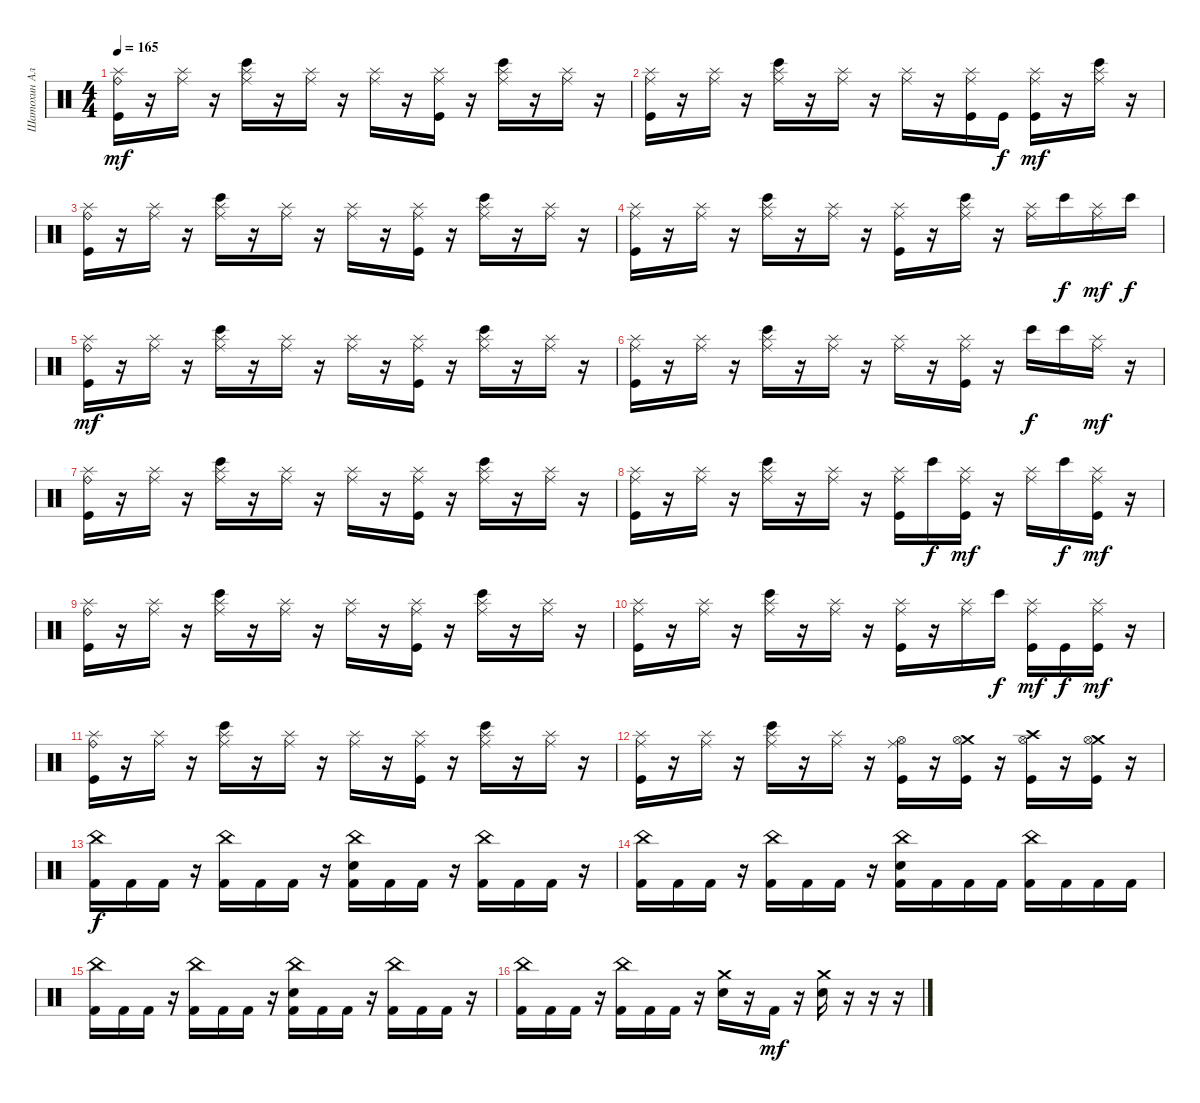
\track ("Шатохин Алексей" "Шатохин Ал") {instrument percussion}
\staff {score}
\articulation defaults
\ts (4 4)
\tempo 165
\clef neutral
\ks c
("Kick (hit)" "Ride (bell)" "Splash (hit)").16{dy mf} r.16 ("Ride (middle)" "Splash (hit)").16 r.16 ("Bongo High (hit)" "Ride (middle)" "Splash (hit)").16 r.16 ("Ride (middle)" "Splash (hit)").16 r.16 ("Ride (middle)" "Splash (hit)").16 r.16 ("Kick (hit)" "Ride (middle)" "Splash (hit)").16 r.16 ("Bongo High (hit)" "Ride (middle)" "Splash (hit)").16 r.16 ("Ride (middle)" "Splash (hit)").16 r.16 |
("Kick (hit)" "Ride (middle)" "Splash (hit)").16 r.16 ("Ride (middle)" "Splash (hit)").16 r.16 ("Bongo High (hit)" "Ride (middle)" "Splash (hit)").16 r.16 ("Ride (middle)" "Splash (hit)").16 r.16 ("Ride (middle)" "Splash (hit)").16 r.16 ("Kick (hit)" "Ride (middle)" "Splash (hit)").16 "Kick (hit)".16{dy f} ("Kick (hit)" "Ride (middle)" "Splash (hit)").16{dy mf} r.16 ("Bongo High (hit)" "Ride (middle)" "Splash (hit)").16 r.16 |
("Kick (hit)" "Ride (bell)" "Splash (hit)").16 r.16 ("Ride (middle)" "Splash (hit)").16 r.16 ("Bongo High (hit)" "Ride (middle)" "Splash (hit)").16 r.16 ("Ride (middle)" "Splash (hit)").16 r.16 ("Ride (middle)" "Splash (hit)").16 r.16 ("Kick (hit)" "Ride (middle)" "Splash (hit)").16 r.16 ("Bongo High (hit)" "Ride (middle)" "Splash (hit)").16 r.16 ("Ride (middle)" "Splash (hit)").16 r.16 |
("Kick (hit)" "Ride (middle)" "Splash (hit)").16 r.16 ("Ride (middle)" "Splash (hit)").16 r.16 ("Bongo High (hit)" "Ride (middle)" "Splash (hit)").16 r.16 ("Ride (middle)" "Splash (hit)").16 r.16 ("Kick (hit)" "Ride (middle)" "Splash (hit)").16 r.16 ("Bongo High (hit)" "Ride (middle)" "Splash (hit)").16 r.16 ("Ride (middle)" "Splash (hit)").16 "Bongo High (hit)".16{dy f} ("Ride (middle)" "Splash (hit)").16{dy mf} "Bongo High (hit)".16{dy f} |
("Kick (hit)" "Ride (bell)" "Splash (hit)").16{dy mf} r.16 ("Ride (middle)" "Splash (hit)").16 r.16 ("Bongo High (hit)" "Ride (middle)" "Splash (hit)").16 r.16 ("Ride (middle)" "Splash (hit)").16 r.16 ("Ride (middle)" "Splash (hit)").16 r.16 ("Kick (hit)" "Ride (middle)" "Splash (hit)").16 r.16 ("Bongo High (hit)" "Ride (middle)" "Splash (hit)").16 r.16 ("Ride (middle)" "Splash (hit)").16 r.16 |
("Kick (hit)" "Ride (middle)" "Splash (hit)").16 r.16 ("Ride (middle)" "Splash (hit)").16 r.16 ("Bongo High (hit)" "Ride (middle)" "Splash (hit)").16 r.16 ("Ride (middle)" "Splash (hit)").16 r.16 ("Ride (middle)" "Splash (hit)").16 r.16 ("Kick (hit)" "Ride (middle)" "Splash (hit)").16 r.16 "Bongo High (hit)".16{dy f} "Bongo High (hit)".16 ("Ride (middle)" "Splash (hit)").16{dy mf} r.16 |
("Kick (hit)" "Ride (bell)" "Splash (hit)").16 r.16 ("Ride (middle)" "Splash (hit)").16 r.16 ("Bongo High (hit)" "Ride (middle)" "Splash (hit)").16 r.16 ("Ride (middle)" "Splash (hit)").16 r.16 ("Ride (middle)" "Splash (hit)").16 r.16 ("Kick (hit)" "Ride (middle)" "Splash (hit)").16 r.16 ("Bongo High (hit)" "Ride (middle)" "Splash (hit)").16 r.16 ("Ride (middle)" "Splash (hit)").16 r.16 |
("Kick (hit)" "Ride (middle)" "Splash (hit)").16 r.16 ("Ride (middle)" "Splash (hit)").16 r.16 ("Bongo High (hit)" "Ride (middle)" "Splash (hit)").16 r.16 ("Ride (middle)" "Splash (hit)").16 r.16 ("Kick (hit)" "Ride (middle)" "Splash (hit)").16 "Bongo High (hit)".16{dy f} ("Kick (hit)" "Ride (middle)" "Splash (hit)").16{dy mf} r.16 ("Ride (middle)" "Splash (hit)").16 "Bongo High (hit)".16{dy f} ("Kick (hit)" "Ride (middle)" "Splash (hit)").16{dy mf} r.16 |
("Kick (hit)" "Ride (bell)" "Splash (hit)").16 r.16 ("Ride (middle)" "Splash (hit)").16 r.16 ("Bongo High (hit)" "Ride (middle)" "Splash (hit)").16 r.16 ("Ride (middle)" "Splash (hit)").16 r.16 ("Ride (middle)" "Splash (hit)").16 r.16 ("Kick (hit)" "Ride (middle)" "Splash (hit)").16 r.16 ("Bongo High (hit)" "Ride (middle)" "Splash (hit)").16 r.16 ("Ride (middle)" "Splash (hit)").16 r.16 |
("Kick (hit)" "Ride (middle)" "Splash (hit)").16 r.16 ("Ride (middle)" "Splash (hit)").16 r.16 ("Bongo High (hit)" "Ride (middle)" "Splash (hit)").16 r.16 ("Ride (middle)" "Splash (hit)").16 r.16 ("Kick (hit)" "Ride (middle)" "Splash (hit)").16 r.16 ("Ride (middle)" "Splash (hit)").16 "Bongo High (hit)".16{dy f} ("Kick (hit)" "Ride (middle)" "Splash (hit)").16{dy mf} "Kick (hit)".16{dy f} ("Kick (hit)" "Ride (middle)" "Splash (hit)").16{dy mf} r.16 |
("Kick (hit)" "Ride (bell)" "Splash (hit)").16 r.16 ("Ride (middle)" "Splash (hit)").16 r.16 ("Bongo High (hit)" "Ride (middle)" "Splash (hit)").16 r.16 ("Ride (middle)" "Splash (hit)").16 r.16 ("Ride (middle)" "Splash (hit)").16 r.16 ("Kick (hit)" "Ride (middle)" "Splash (hit)").16 r.16 ("Bongo High (hit)" "Ride (middle)" "Splash (hit)").16 r.16 ("Ride (middle)" "Splash (hit)").16 r.16 |
("Kick (hit)" "Ride (middle)" "Splash (hit)").16 r.16 ("Ride (middle)" "Splash (hit)").16 r.16 ("Bongo High (hit)" "Ride (middle)" "Splash (hit)").16 r.16 ("Ride (middle)" "Splash (hit)").16 r.16 ("Kick (hit)" "Ride (middle)" "Hi-Hat (open)").16 r.16 ("Kick (hit)" "Crash medium (hit)" "Hi-Hat (open)").16 r.16 ("Kick (hit)" "Crash high (hit)" "Hi-Hat (open)").16 r.16 ("Kick (hit)" "Crash medium (hit)" "Hi-Hat (open)").16 r.16 |
("China (hit)" "Kick (hit) 2").16{dy f} "Kick (hit) 2".16 "Kick (hit) 2".16 r.16 ("China (hit)" "Kick (hit) 2").16 "Kick (hit) 2".16 "Kick (hit) 2".16 r.16 ("China (hit)" "Electric Snare (hit)" "Kick (hit) 2").16 "Kick (hit) 2".16 "Kick (hit) 2".16 r.16 ("China (hit)" "Kick (hit) 2").16 "Kick (hit) 2".16 "Kick (hit) 2".16 r.16 |
("China (hit)" "Kick (hit) 2").16 "Kick (hit) 2".16 "Kick (hit) 2".16 r.16 ("China (hit)" "Kick (hit) 2").16 "Kick (hit) 2".16 "Kick (hit) 2".16 r.16 ("China (hit)" "Electric Snare (hit)" "Kick (hit) 2").16 "Kick (hit) 2".16 "Kick (hit) 2".16 "Kick (hit) 2".16 ("China (hit)" "Kick (hit) 2").16 "Kick (hit) 2".16 "Kick (hit) 2".16 "Kick (hit) 2".16 |
("China (hit)" "Kick (hit) 2").16 "Kick (hit) 2".16 "Kick (hit) 2".16 r.16 ("China (hit)" "Kick (hit) 2").16 "Kick (hit) 2".16 "Kick (hit) 2".16 r.16 ("China (hit)" "Electric Snare (hit)" "Kick (hit) 2").16 "Kick (hit) 2".16 "Kick (hit) 2".16 r.16 ("China (hit)" "Kick (hit) 2").16 "Kick (hit) 2".16 "Kick (hit) 2".16 r.16 |
("China (hit)" "Kick (hit) 2").16 "Kick (hit) 2".16 "Kick (hit) 2".16 r.16 ("China (hit)" "Kick (hit) 2").16 "Kick (hit) 2".16 "Kick (hit) 2".16 r.16 ("Crash medium (hit)" "Electric Snare (hit)").16 r.16 "Kick (hit) 2".16{dy mf} r.16 ("Crash medium (hit)" "Electric Snare (hit)").16 r.16 r.16 r.16
